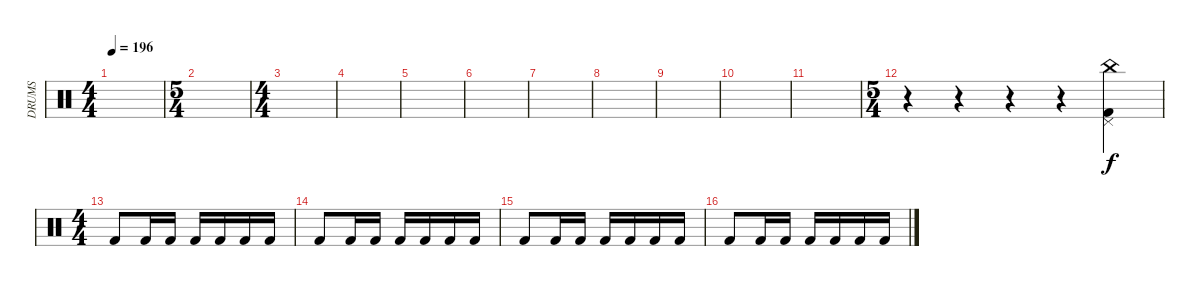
\track ("DRUMS" "DRUMS") {instrument percussion}
\staff {score}
\articulation defaults
\ts (4 4)
\tempo 196
\clef neutral
\ks c
|
\ts (5 4)
|
\ts (4 4)
|
|
|
|
|
|
|
|
|
\ts (5 4)
r.4 r.4 r.4 r.4 ("China (hit)" "Pedal Hi-Hat (hit)" "Kick (hit) 2").4 |
\ts (4 4)
"Kick (hit) 2".8{dy f} "Kick (hit) 2".16 "Kick (hit) 2".16 "Kick (hit) 2".16 "Kick (hit) 2".16 "Kick (hit) 2".16 "Kick (hit) 2".16 |
"Kick (hit) 2".8 "Kick (hit) 2".16 "Kick (hit) 2".16 "Kick (hit) 2".16 "Kick (hit) 2".16 "Kick (hit) 2".16 "Kick (hit) 2".16 |
"Kick (hit) 2".8 "Kick (hit) 2".16 "Kick (hit) 2".16 "Kick (hit) 2".16 "Kick (hit) 2".16 "Kick (hit) 2".16 "Kick (hit) 2".16 |
"Kick (hit) 2".8 "Kick (hit) 2".16 "Kick (hit) 2".16 "Kick (hit) 2".16 "Kick (hit) 2".16 "Kick (hit) 2".16 "Kick (hit) 2".16
